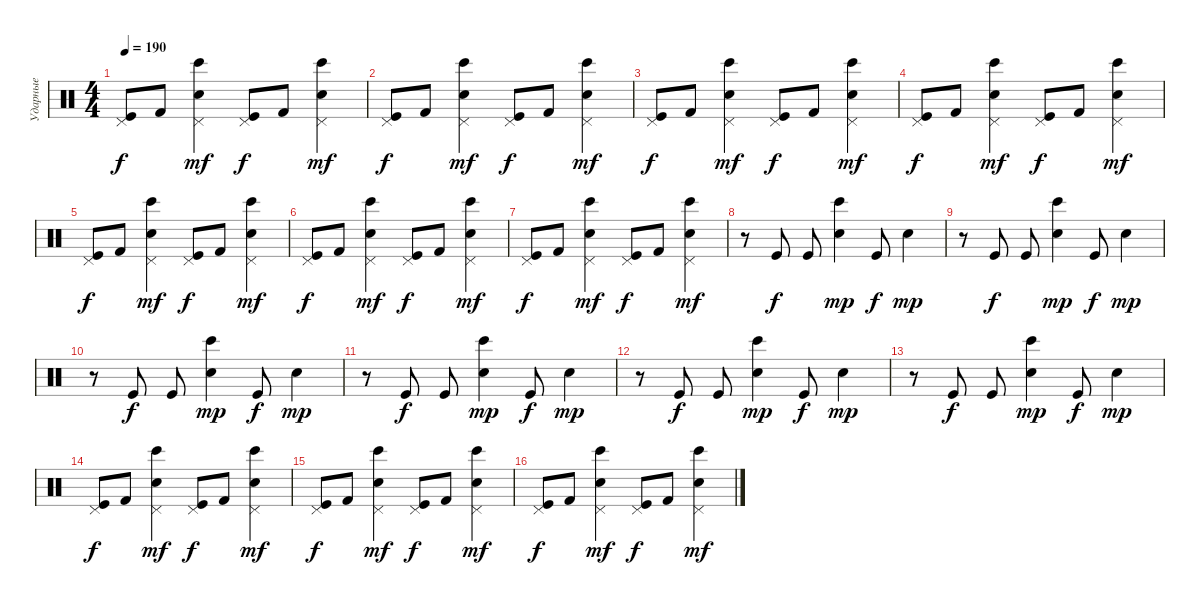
\track ("Ударные" "Ударные") {instrument percussion}
\staff {score}
\articulation defaults
\ts (4 4)
\tempo 190
\clef neutral
\ks c
("Pedal Hi-Hat (hit)" "Kick (hit)").8{dy f} "Kick (hit) 2".8 ("Pedal Hi-Hat (hit)" "Electric Snare (hit)" "Bongo High (hit)").4{dy mf} ("Pedal Hi-Hat (hit)" "Kick (hit)").8{dy f} "Kick (hit) 2".8 ("Pedal Hi-Hat (hit)" "Electric Snare (hit)" "Bongo High (hit)").4{dy mf} |
("Pedal Hi-Hat (hit)" "Kick (hit)").8{dy f} "Kick (hit) 2".8 ("Pedal Hi-Hat (hit)" "Electric Snare (hit)" "Bongo High (hit)").4{dy mf} ("Pedal Hi-Hat (hit)" "Kick (hit)").8{dy f} "Kick (hit) 2".8 ("Pedal Hi-Hat (hit)" "Electric Snare (hit)" "Bongo High (hit)").4{dy mf} |
("Pedal Hi-Hat (hit)" "Kick (hit)").8{dy f} "Kick (hit) 2".8 ("Pedal Hi-Hat (hit)" "Electric Snare (hit)" "Bongo High (hit)").4{dy mf} ("Pedal Hi-Hat (hit)" "Kick (hit)").8{dy f} "Kick (hit) 2".8 ("Pedal Hi-Hat (hit)" "Electric Snare (hit)" "Bongo High (hit)").4{dy mf} |
("Pedal Hi-Hat (hit)" "Kick (hit)").8{dy f} "Kick (hit) 2".8 ("Pedal Hi-Hat (hit)" "Electric Snare (hit)" "Bongo High (hit)").4{dy mf} ("Pedal Hi-Hat (hit)" "Kick (hit)").8{dy f} "Kick (hit) 2".8 ("Pedal Hi-Hat (hit)" "Electric Snare (hit)" "Bongo High (hit)").4{dy mf} |
("Pedal Hi-Hat (hit)" "Kick (hit)").8{dy f} "Kick (hit) 2".8 ("Pedal Hi-Hat (hit)" "Electric Snare (hit)" "Bongo High (hit)").4{dy mf} ("Pedal Hi-Hat (hit)" "Kick (hit)").8{dy f} "Kick (hit) 2".8 ("Pedal Hi-Hat (hit)" "Electric Snare (hit)" "Bongo High (hit)").4{dy mf} |
("Pedal Hi-Hat (hit)" "Kick (hit)").8{dy f} "Kick (hit) 2".8 ("Pedal Hi-Hat (hit)" "Electric Snare (hit)" "Bongo High (hit)").4{dy mf} ("Pedal Hi-Hat (hit)" "Kick (hit)").8{dy f} "Kick (hit) 2".8 ("Pedal Hi-Hat (hit)" "Electric Snare (hit)" "Bongo High (hit)").4{dy mf} |
("Pedal Hi-Hat (hit)" "Kick (hit)").8{dy f} "Kick (hit) 2".8 ("Pedal Hi-Hat (hit)" "Electric Snare (hit)" "Bongo High (hit)").4{dy mf} ("Pedal Hi-Hat (hit)" "Kick (hit)").8{dy f} "Kick (hit) 2".8 ("Pedal Hi-Hat (hit)" "Electric Snare (hit)" "Bongo High (hit)").4{dy mf} |
r.8 "Kick (hit)".8{dy f} "Kick (hit)".8 ("Electric Snare (hit)" "Bongo High (hit)").4{dy mp} "Kick (hit)".8{dy f} "Electric Snare (hit)".4{dy mp} |
r.8 "Kick (hit)".8{dy f} "Kick (hit)".8 ("Electric Snare (hit)" "Bongo High (hit)").4{dy mp} "Kick (hit)".8{dy f} "Electric Snare (hit)".4{dy mp} |
r.8 "Kick (hit)".8{dy f} "Kick (hit)".8 ("Electric Snare (hit)" "Bongo High (hit)").4{dy mp} "Kick (hit)".8{dy f} "Electric Snare (hit)".4{dy mp} |
r.8 "Kick (hit)".8{dy f} "Kick (hit)".8 ("Electric Snare (hit)" "Bongo High (hit)").4{dy mp} "Kick (hit)".8{dy f} "Electric Snare (hit)".4{dy mp} |
r.8 "Kick (hit)".8{dy f} "Kick (hit)".8 ("Electric Snare (hit)" "Bongo High (hit)").4{dy mp} "Kick (hit)".8{dy f} "Electric Snare (hit)".4{dy mp} |
r.8 "Kick (hit)".8{dy f} "Kick (hit)".8 ("Electric Snare (hit)" "Bongo High (hit)").4{dy mp} "Kick (hit)".8{dy f} "Electric Snare (hit)".4{dy mp} |
("Pedal Hi-Hat (hit)" "Kick (hit)").8{dy f} "Kick (hit) 2".8 ("Pedal Hi-Hat (hit)" "Electric Snare (hit)" "Bongo High (hit)").4{dy mf} ("Pedal Hi-Hat (hit)" "Kick (hit)").8{dy f} "Kick (hit) 2".8 ("Pedal Hi-Hat (hit)" "Electric Snare (hit)" "Bongo High (hit)").4{dy mf} |
("Pedal Hi-Hat (hit)" "Kick (hit)").8{dy f} "Kick (hit) 2".8 ("Pedal Hi-Hat (hit)" "Electric Snare (hit)" "Bongo High (hit)").4{dy mf} ("Pedal Hi-Hat (hit)" "Kick (hit)").8{dy f} "Kick (hit) 2".8 ("Pedal Hi-Hat (hit)" "Electric Snare (hit)" "Bongo High (hit)").4{dy mf} |
("Pedal Hi-Hat (hit)" "Kick (hit)").8{dy f} "Kick (hit) 2".8 ("Pedal Hi-Hat (hit)" "Electric Snare (hit)" "Bongo High (hit)").4{dy mf} ("Pedal Hi-Hat (hit)" "Kick (hit)").8{dy f} "Kick (hit) 2".8 ("Pedal Hi-Hat (hit)" "Electric Snare (hit)" "Bongo High (hit)").4{dy mf}
